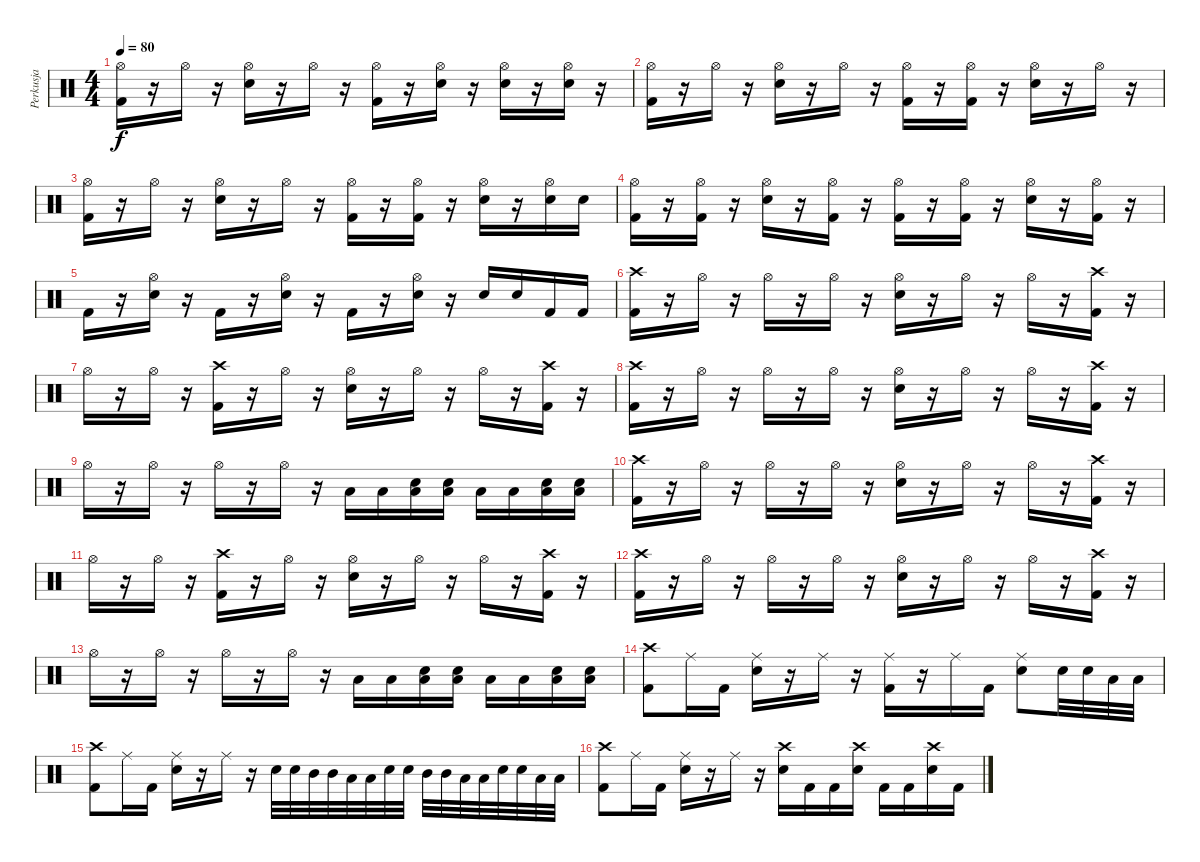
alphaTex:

\track ("Perkusja" "Perkusja") {instrument percussion}
\staff {score}
\articulation defaults
\ts (4 4)
\tempo 80
\clef neutral
\ks c
("Hi-Hat (open)" "Kick (hit) 2").16{dy f} r.16 "Hi-Hat (open)".16 r.16 ("Hi-Hat (open)" "Snare (hit) 2").16 r.16 "Hi-Hat (open)".16 r.16 ("Hi-Hat (open)" "Kick (hit) 2").16 r.16 ("Hi-Hat (open)" "Snare (hit) 2").16 r.16 ("Hi-Hat (open)" "Snare (hit) 2").16 r.16 ("Hi-Hat (open)" "Snare (hit) 2").16 r.16 |
("Hi-Hat (open)" "Kick (hit) 2").16 r.16 "Hi-Hat (open)".16 r.16 ("Hi-Hat (open)" "Snare (hit) 2").16 r.16 "Hi-Hat (open)".16 r.16 ("Hi-Hat (open)" "Kick (hit) 2").16 r.16 ("Hi-Hat (open)" "Kick (hit) 2").16 r.16 ("Hi-Hat (open)" "Snare (hit) 2").16 r.16 "Hi-Hat (open)".16 r.16 |
("Hi-Hat (open)" "Kick (hit) 2").16 r.16 "Hi-Hat (open)".16 r.16 ("Hi-Hat (open)" "Snare (hit) 2").16 r.16 "Hi-Hat (open)".16 r.16 ("Hi-Hat (open)" "Kick (hit) 2").16 r.16 ("Hi-Hat (open)" "Kick (hit) 2").16 r.16 ("Hi-Hat (open)" "Snare (hit) 2").16 r.16 ("Hi-Hat (open)" "Snare (hit) 2").16 "Snare (hit) 2".16 |
("Hi-Hat (open)" "Kick (hit) 2").16 r.16 ("Hi-Hat (open)" "Kick (hit) 2").16 r.16 ("Hi-Hat (open)" "Snare (hit) 2").16 r.16 ("Hi-Hat (open)" "Kick (hit) 2").16 r.16 ("Hi-Hat (open)" "Kick (hit) 2").16 r.16 ("Hi-Hat (open)" "Kick (hit) 2").16 r.16 ("Hi-Hat (open)" "Snare (hit) 2").16 r.16 ("Hi-Hat (open)" "Kick (hit) 2").16 r.16 |
"Kick (hit) 2".16 r.16 ("Hi-Hat (open)" "Snare (hit) 2").16 r.16 "Kick (hit) 2".16 r.16 ("Hi-Hat (open)" "Snare (hit) 2").16 r.16 "Kick (hit) 2".16 r.16 ("Hi-Hat (open)" "Snare (hit) 2").16 r.16 "Snare (hit) 2".16 "Snare (hit) 2".16 "Kick (hit) 2".16 "Kick (hit) 2".16 |
("Crash high (hit)" "Kick (hit) 2").16 r.16 "Hi-Hat (open)".16 r.16 "Hi-Hat (open)".16 r.16 "Hi-Hat (open)".16 r.16 ("Hi-Hat (open)" "Snare (hit) 2").16 r.16 "Hi-Hat (open)".16 r.16 "Hi-Hat (open)".16 r.16 ("Crash high (hit)" "Kick (hit) 2").16 r.16 |
"Hi-Hat (open)".16 r.16 "Hi-Hat (open)".16 r.16 ("Crash high (hit)" "Kick (hit) 2").16 r.16 "Hi-Hat (open)".16 r.16 ("Hi-Hat (open)" "Snare (hit) 2").16 r.16 "Hi-Hat (open)".16 r.16 "Hi-Hat (open)".16 r.16 ("Crash high (hit)" "Kick (hit) 2").16 r.16 |
("Crash high (hit)" "Kick (hit) 2").16 r.16 "Hi-Hat (open)".16 r.16 "Hi-Hat (open)".16 r.16 "Hi-Hat (open)".16 r.16 ("Hi-Hat (open)" "Snare (hit) 2").16 r.16 "Hi-Hat (open)".16 r.16 "Hi-Hat (open)".16 r.16 ("Crash high (hit)" "Kick (hit) 2").16 r.16 |
"Hi-Hat (open)".16 r.16 "Hi-Hat (open)".16 r.16 "Hi-Hat (open)".16 r.16 "Hi-Hat (open)".16 r.16 "Low Floor Tom (hit)".16 "Low Floor Tom (hit)".16 ("Low Floor Tom (hit)" "Snare (hit) 2").16 ("Low Floor Tom (hit)" "Snare (hit) 2").16 "Low Floor Tom (hit)".16 "Low Floor Tom (hit)".16 ("Low Floor Tom (hit)" "Snare (hit) 2").16 ("Low Floor Tom (hit)" "Snare (hit) 2").16 |
("Crash high (hit)" "Kick (hit) 2").16 r.16 "Hi-Hat (open)".16 r.16 "Hi-Hat (open)".16 r.16 "Hi-Hat (open)".16 r.16 ("Hi-Hat (open)" "Snare (hit) 2").16 r.16 "Hi-Hat (open)".16 r.16 "Hi-Hat (open)".16 r.16 ("Crash high (hit)" "Kick (hit) 2").16 r.16 |
"Hi-Hat (open)".16 r.16 "Hi-Hat (open)".16 r.16 ("Crash high (hit)" "Kick (hit) 2").16 r.16 "Hi-Hat (open)".16 r.16 ("Hi-Hat (open)" "Snare (hit) 2").16 r.16 "Hi-Hat (open)".16 r.16 "Hi-Hat (open)".16 r.16 ("Crash high (hit)" "Kick (hit) 2").16 r.16 |
("Crash high (hit)" "Kick (hit) 2").16 r.16 "Hi-Hat (open)".16 r.16 "Hi-Hat (open)".16 r.16 "Hi-Hat (open)".16 r.16 ("Hi-Hat (open)" "Snare (hit) 2").16 r.16 "Hi-Hat (open)".16 r.16 "Hi-Hat (open)".16 r.16 ("Crash high (hit)" "Kick (hit) 2").16 r.16 |
"Hi-Hat (open)".16 r.16 "Hi-Hat (open)".16 r.16 "Hi-Hat (open)".16 r.16 "Hi-Hat (open)".16 r.16 "Low Floor Tom (hit)".16 "Low Floor Tom (hit)".16 ("Low Floor Tom (hit)" "Snare (hit) 2").16 ("Low Floor Tom (hit)" "Snare (hit) 2").16 "Low Floor Tom (hit)".16 "Low Floor Tom (hit)".16 ("Low Floor Tom (hit)" "Snare (hit) 2").16 ("Low Floor Tom (hit)" "Snare (hit) 2").16 |
("Crash high (hit)" "Kick (hit) 2").8 "Ride (middle)".16 "Kick (hit) 2".16 ("Ride (middle)" "Snare (hit) 2").16 r.16 "Ride (middle)".16 r.16 ("Ride (middle)" "Kick (hit) 2").16 r.16 "Ride (middle)".16 "Kick (hit) 2".16 ("Ride (middle)" "Snare (hit) 2").8 "Snare (hit) 2".32 "Snare (hit) 2".32 "Low Floor Tom (hit)".32 "Low Floor Tom (hit)".32 |
("Crash high (hit)" "Kick (hit) 2").8 "Ride (middle)".16 "Kick (hit) 2".16 ("Ride (middle)" "Snare (hit) 2").16 r.16 "Ride (middle)".16 r.16 "Snare (hit) 2".32 "Snare (hit) 2".32 "Mid Tom (hit)".32 "Mid Tom (hit)".32 "Low Tom (hit)".32 "Low Tom (hit)".32 "Snare (hit) 2".32 "Snare (hit) 2".32 "Mid Tom (hit)".32 "Mid Tom (hit)".32 "Low Tom (hit)".32 "Low Tom (hit)".32 "Snare (hit) 2".32 "Snare (hit) 2".32 "Low Tom (hit)".32 "Low Tom (hit)".32 |
("Crash high (hit)" "Kick (hit) 2").8 "Ride (middle)".16 "Kick (hit) 2".16 ("Ride (middle)" "Snare (hit) 2").16 r.16 "Ride (middle)".16 r.16 ("Crash high (hit)" "Snare (hit) 2").16 "Kick (hit) 2".16 "Kick (hit) 2".16 ("Crash high (hit)" "Snare (hit) 2").16 "Kick (hit) 2".16 "Kick (hit) 2".16 ("Crash high (hit)" "Snare (hit) 2").16 "Kick (hit) 2".16
